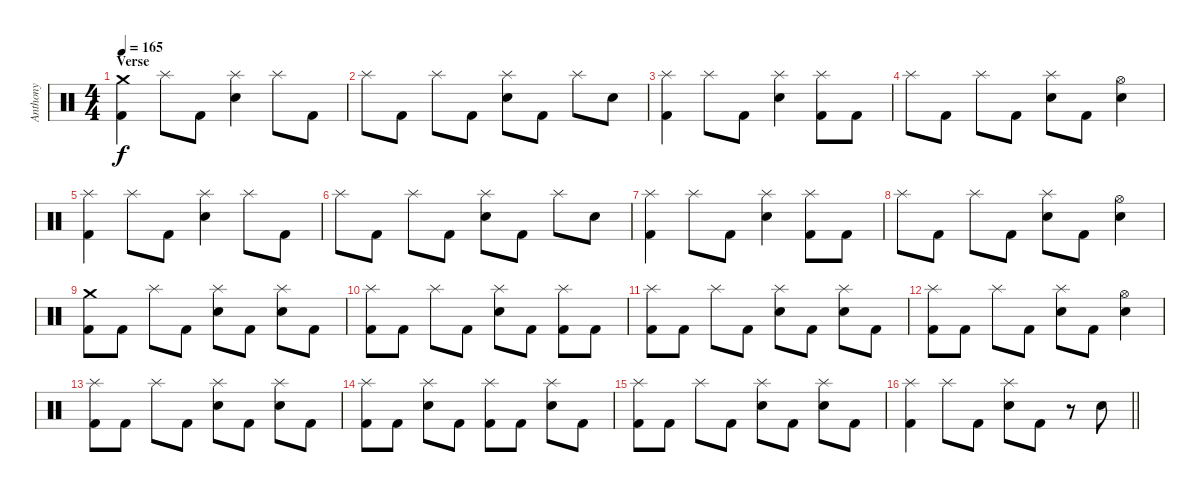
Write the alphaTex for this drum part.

\track ("Anthony" "Anthony") {instrument percussion}
\staff {score}
\articulation defaults
\ts (4 4)
\section ("" "Verse")
\tempo 165
\clef neutral
\ks c
("Crash medium (hit)" "Kick (hit) 2").4{dy f} "Splash (hit)".8 "Kick (hit) 2".8 ("Splash (hit)" "Electric Snare (hit)").4 "Splash (hit)".8 "Kick (hit) 2".8 |
"Splash (hit)".8 "Kick (hit) 2".8 "Splash (hit)".8 "Kick (hit) 2".8 ("Splash (hit)" "Electric Snare (hit)").8 "Kick (hit) 2".8 "Splash (hit)".8 "Electric Snare (hit)".8 |
("Splash (hit)" "Kick (hit) 2").4 "Splash (hit)".8 "Kick (hit) 2".8 ("Splash (hit)" "Electric Snare (hit)").4 ("Splash (hit)" "Kick (hit) 2").8 "Kick (hit) 2".8 |
"Splash (hit)".8 "Kick (hit) 2".8 "Splash (hit)".8 "Kick (hit) 2".8 ("Splash (hit)" "Electric Snare (hit)").8 "Kick (hit) 2".8 ("Hi-Hat (open)" "Electric Snare (hit)").4 |
("Splash (hit)" "Kick (hit) 2").4 "Splash (hit)".8 "Kick (hit) 2".8 ("Splash (hit)" "Electric Snare (hit)").4 "Splash (hit)".8 "Kick (hit) 2".8 |
"Splash (hit)".8 "Kick (hit) 2".8 "Splash (hit)".8 "Kick (hit) 2".8 ("Splash (hit)" "Electric Snare (hit)").8 "Kick (hit) 2".8 "Splash (hit)".8 "Electric Snare (hit)".8 |
("Splash (hit)" "Kick (hit) 2").4 "Splash (hit)".8 "Kick (hit) 2".8 ("Splash (hit)" "Electric Snare (hit)").4 ("Splash (hit)" "Kick (hit) 2").8 "Kick (hit) 2".8 |
"Splash (hit)".8 "Kick (hit) 2".8 "Splash (hit)".8 "Kick (hit) 2".8 ("Splash (hit)" "Electric Snare (hit)").8 "Kick (hit) 2".8 ("Hi-Hat (open)" "Electric Snare (hit)").4 |
("Crash medium (hit)" "Kick (hit) 2").8 "Kick (hit) 2".8 "Splash (hit)".8 "Kick (hit) 2".8 ("Splash (hit)" "Electric Snare (hit)").8 "Kick (hit) 2".8 ("Splash (hit)" "Electric Snare (hit)").8 "Kick (hit) 2".8 |
("Splash (hit)" "Kick (hit) 2").8 "Kick (hit) 2".8 "Splash (hit)".8 "Kick (hit) 2".8 ("Splash (hit)" "Electric Snare (hit)").8 "Kick (hit) 2".8 ("Splash (hit)" "Kick (hit) 2").8 "Kick (hit) 2".8 |
("Splash (hit)" "Kick (hit) 2").8 "Kick (hit) 2".8 "Splash (hit)".8 "Kick (hit) 2".8 ("Splash (hit)" "Electric Snare (hit)").8 "Kick (hit) 2".8 ("Splash (hit)" "Electric Snare (hit)").8 "Kick (hit) 2".8 |
("Splash (hit)" "Kick (hit) 2").8 "Kick (hit) 2".8 "Splash (hit)".8 "Kick (hit) 2".8 ("Splash (hit)" "Electric Snare (hit)").8 "Kick (hit) 2".8 ("Hi-Hat (open)" "Electric Snare (hit)").4 |
("Splash (hit)" "Kick (hit) 2").8 "Kick (hit) 2".8 "Splash (hit)".8 "Kick (hit) 2".8 ("Splash (hit)" "Electric Snare (hit)").8 "Kick (hit) 2".8 ("Splash (hit)" "Electric Snare (hit)").8 "Kick (hit) 2".8 |
("Splash (hit)" "Kick (hit) 2").8 "Kick (hit) 2".8 ("Splash (hit)" "Electric Snare (hit)").8 "Kick (hit) 2".8 ("Splash (hit)" "Kick (hit) 2").8 "Kick (hit) 2".8 ("Splash (hit)" "Electric Snare (hit)").8 "Kick (hit) 2".8 |
("Splash (hit)" "Kick (hit) 2").8 "Kick (hit) 2".8 "Splash (hit)".8 "Kick (hit) 2".8 ("Splash (hit)" "Electric Snare (hit)").8 "Kick (hit) 2".8 ("Splash (hit)" "Electric Snare (hit)").8 "Kick (hit) 2".8 |
\barLineRight lightlight
("Splash (hit)" "Kick (hit) 2").4 "Splash (hit)".8 "Kick (hit) 2".8 ("Splash (hit)" "Electric Snare (hit)").8 "Kick (hit) 2".8 r.8 "Electric Snare (hit)".8
